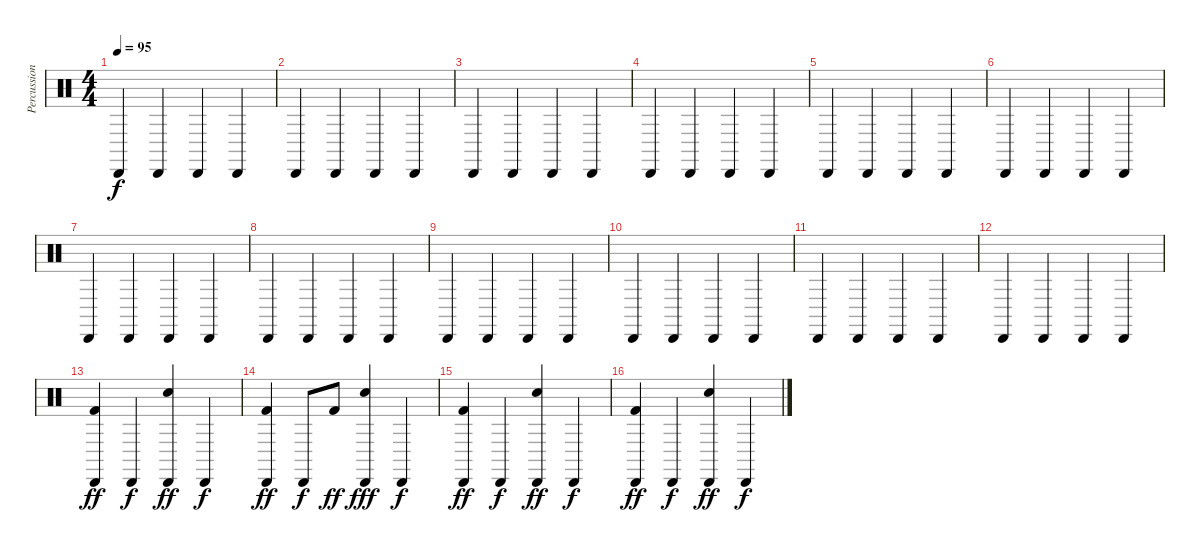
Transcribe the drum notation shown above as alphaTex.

\track ("Percussions" "Percussion") {instrument percussion}
\staff {score}
\articulation defaults
\ts (4 4)
\tempo 95
\clef neutral
\ks c "Cabasa (hit)".4{dy f} "Cabasa (hit)".4 "Cabasa (hit)".4 "Cabasa (hit)".4
|
"Cabasa (hit)".4 "Cabasa (hit)".4 "Cabasa (hit)".4 "Cabasa (hit)".4 |
"Cabasa (hit)".4 "Cabasa (hit)".4 "Cabasa (hit)".4 "Cabasa (hit)".4 |
"Cabasa (hit)".4 "Cabasa (hit)".4 "Cabasa (hit)".4 "Cabasa (hit)".4 |
"Cabasa (hit)".4 "Cabasa (hit)".4 "Cabasa (hit)".4 "Cabasa (hit)".4 |
"Cabasa (hit)".4 "Cabasa (hit)".4 "Cabasa (hit)".4 "Cabasa (hit)".4 |
"Cabasa (hit)".4 "Cabasa (hit)".4 "Cabasa (hit)".4 "Cabasa (hit)".4 |
"Cabasa (hit)".4 "Cabasa (hit)".4 "Cabasa (hit)".4 "Cabasa (hit)".4 |
"Cabasa (hit)".4 "Cabasa (hit)".4 "Cabasa (hit)".4 "Cabasa (hit)".4 |
"Cabasa (hit)".4 "Cabasa (hit)".4 "Cabasa (hit)".4 "Cabasa (hit)".4 |
"Cabasa (hit)".4 "Cabasa (hit)".4 "Cabasa (hit)".4 "Cabasa (hit)".4 |
"Cabasa (hit)".4 "Cabasa (hit)".4 "Cabasa (hit)".4 "Cabasa (hit)".4 |
("Kick (hit) 2" "Cabasa (hit)").4{dy ff} "Cabasa (hit)".4{dy f} ("Snare (hit) 2" "Cabasa (hit)").4{dy ff} "Cabasa (hit)".4{dy f} |
("Kick (hit) 2" "Cabasa (hit)").4{dy ff} "Cabasa (hit)".8{dy f} "Kick (hit) 2".8{dy ff} ("Snare (hit) 2" "Cabasa (hit)").4{dy fff} "Cabasa (hit)".4{dy f} |
("Kick (hit) 2" "Cabasa (hit)").4{dy ff} "Cabasa (hit)".4{dy f} ("Snare (hit) 2" "Cabasa (hit)").4{dy ff} "Cabasa (hit)".4{dy f} |
("Kick (hit) 2" "Cabasa (hit)").4{dy ff} "Cabasa (hit)".4{dy f} ("Snare (hit) 2" "Cabasa (hit)").4{dy ff} "Cabasa (hit)".4{dy f}
